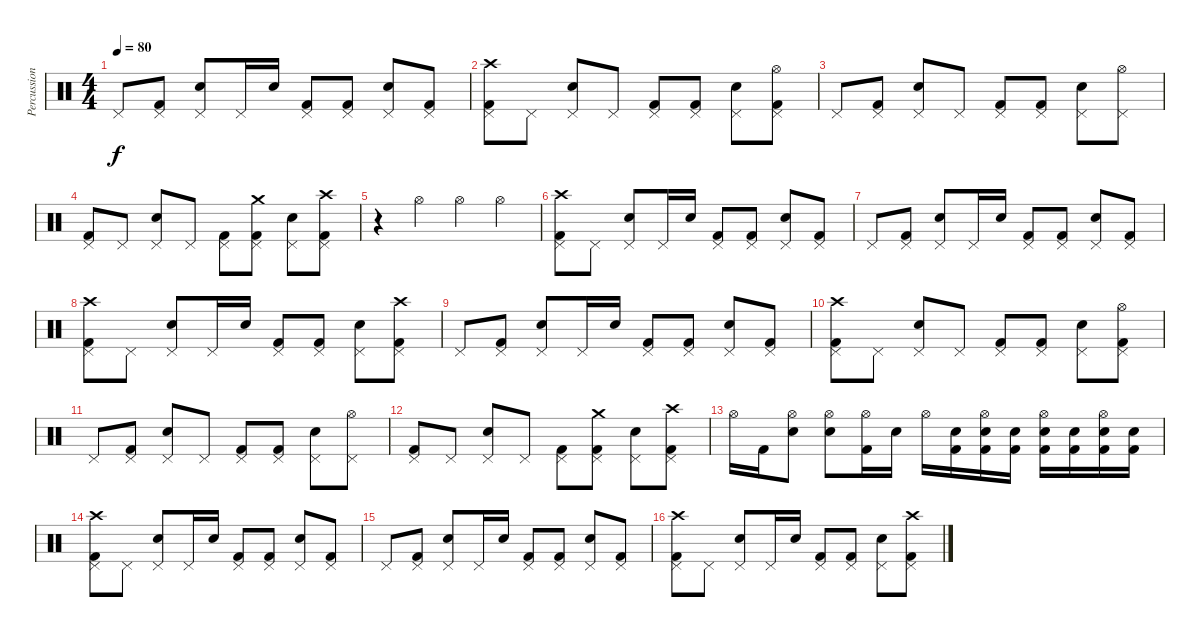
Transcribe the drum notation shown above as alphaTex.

\track ("Percussion" "Percussion") {instrument percussion}
\staff {score}
\articulation defaults
\ts (4 4)
\tempo 80
\clef neutral
\ks c "Pedal Hi-Hat (hit)".8{dy f}
("Pedal Hi-Hat (hit)" "Kick (hit) 2").8 ("Pedal Hi-Hat (hit)" "Electric Snare (hit)").8 "Pedal Hi-Hat (hit)".16 "Electric Snare (hit)".16 ("Pedal Hi-Hat (hit)" "Kick (hit) 2").8 ("Pedal Hi-Hat (hit)" "Kick (hit) 2").8 ("Pedal Hi-Hat (hit)" "Electric Snare (hit)").8 ("Pedal Hi-Hat (hit)" "Kick (hit) 2").8 |
("Pedal Hi-Hat (hit)" "Crash high (hit)" "Kick (hit) 2").8 "Pedal Hi-Hat (hit)".8 ("Pedal Hi-Hat (hit)" "Electric Snare (hit)").8 "Pedal Hi-Hat (hit)".8 ("Pedal Hi-Hat (hit)" "Kick (hit) 2").8 ("Pedal Hi-Hat (hit)" "Kick (hit) 2").8 ("Pedal Hi-Hat (hit)" "Electric Snare (hit)").8 ("Pedal Hi-Hat (hit)" "Hi-Hat (open)" "Kick (hit) 2").8 |
"Pedal Hi-Hat (hit)".8 ("Pedal Hi-Hat (hit)" "Kick (hit) 2").8 ("Pedal Hi-Hat (hit)" "Electric Snare (hit)").8 "Pedal Hi-Hat (hit)".8 ("Pedal Hi-Hat (hit)" "Kick (hit) 2").8 ("Pedal Hi-Hat (hit)" "Kick (hit) 2").8 ("Pedal Hi-Hat (hit)" "Electric Snare (hit)").8 ("Pedal Hi-Hat (hit)" "Hi-Hat (open)").8 |
("Pedal Hi-Hat (hit)" "Kick (hit) 2").8 "Pedal Hi-Hat (hit)".8 ("Pedal Hi-Hat (hit)" "Electric Snare (hit)").8 "Pedal Hi-Hat (hit)".8 ("Pedal Hi-Hat (hit)" "Kick (hit) 2").8 ("Pedal Hi-Hat (hit)" "Crash medium (hit)" "Kick (hit) 2").8 ("Pedal Hi-Hat (hit)" "Electric Snare (hit)").8 ("Pedal Hi-Hat (hit)" "Crash high (hit)" "Kick (hit) 2").8 |
r.4 "Hi-Hat (open)".4 "Hi-Hat (open)".4 "Hi-Hat (open)".4 |
("Pedal Hi-Hat (hit)" "Crash high (hit)" "Kick (hit) 2").8 "Pedal Hi-Hat (hit)".8 ("Pedal Hi-Hat (hit)" "Electric Snare (hit)").8 "Pedal Hi-Hat (hit)".16 "Electric Snare (hit)".16 ("Pedal Hi-Hat (hit)" "Kick (hit) 2").8 ("Pedal Hi-Hat (hit)" "Kick (hit) 2").8 ("Pedal Hi-Hat (hit)" "Electric Snare (hit)").8 ("Pedal Hi-Hat (hit)" "Kick (hit) 2").8 |
"Pedal Hi-Hat (hit)".8 ("Pedal Hi-Hat (hit)" "Kick (hit) 2").8 ("Pedal Hi-Hat (hit)" "Electric Snare (hit)").8 "Pedal Hi-Hat (hit)".16 "Electric Snare (hit)".16 ("Pedal Hi-Hat (hit)" "Kick (hit) 2").8 ("Pedal Hi-Hat (hit)" "Kick (hit) 2").8 ("Pedal Hi-Hat (hit)" "Electric Snare (hit)").8 ("Pedal Hi-Hat (hit)" "Kick (hit) 2").8 |
("Pedal Hi-Hat (hit)" "Crash high (hit)" "Kick (hit) 2").8 "Pedal Hi-Hat (hit)".8 ("Pedal Hi-Hat (hit)" "Electric Snare (hit)").8 "Pedal Hi-Hat (hit)".16 "Electric Snare (hit)".16 ("Pedal Hi-Hat (hit)" "Kick (hit) 2").8 ("Pedal Hi-Hat (hit)" "Kick (hit) 2").8 ("Pedal Hi-Hat (hit)" "Electric Snare (hit)").8 ("Pedal Hi-Hat (hit)" "Crash high (hit)" "Kick (hit) 2").8 |
"Pedal Hi-Hat (hit)".8 ("Pedal Hi-Hat (hit)" "Kick (hit) 2").8 ("Pedal Hi-Hat (hit)" "Electric Snare (hit)").8 "Pedal Hi-Hat (hit)".16 "Electric Snare (hit)".16 ("Pedal Hi-Hat (hit)" "Kick (hit) 2").8 ("Pedal Hi-Hat (hit)" "Kick (hit) 2").8 ("Pedal Hi-Hat (hit)" "Electric Snare (hit)").8 ("Pedal Hi-Hat (hit)" "Kick (hit) 2").8 |
("Pedal Hi-Hat (hit)" "Crash high (hit)" "Kick (hit) 2").8 "Pedal Hi-Hat (hit)".8 ("Pedal Hi-Hat (hit)" "Electric Snare (hit)").8 "Pedal Hi-Hat (hit)".8 ("Pedal Hi-Hat (hit)" "Kick (hit) 2").8 ("Pedal Hi-Hat (hit)" "Kick (hit) 2").8 ("Pedal Hi-Hat (hit)" "Electric Snare (hit)").8 ("Pedal Hi-Hat (hit)" "Hi-Hat (open)" "Kick (hit) 2").8 |
"Pedal Hi-Hat (hit)".8 ("Pedal Hi-Hat (hit)" "Kick (hit) 2").8 ("Pedal Hi-Hat (hit)" "Electric Snare (hit)").8 "Pedal Hi-Hat (hit)".8 ("Pedal Hi-Hat (hit)" "Kick (hit) 2").8 ("Pedal Hi-Hat (hit)" "Kick (hit) 2").8 ("Pedal Hi-Hat (hit)" "Electric Snare (hit)").8 ("Pedal Hi-Hat (hit)" "Hi-Hat (open)").8 |
("Pedal Hi-Hat (hit)" "Kick (hit) 2").8 "Pedal Hi-Hat (hit)".8 ("Pedal Hi-Hat (hit)" "Electric Snare (hit)").8 "Pedal Hi-Hat (hit)".8 ("Pedal Hi-Hat (hit)" "Kick (hit) 2").8 ("Pedal Hi-Hat (hit)" "Crash medium (hit)" "Kick (hit) 2").8 ("Pedal Hi-Hat (hit)" "Electric Snare (hit)").8 ("Pedal Hi-Hat (hit)" "Crash high (hit)" "Kick (hit) 2").8 |
"Hi-Hat (open)".16 "Kick (hit) 2".16 ("Hi-Hat (open)" "Electric Snare (hit)").8 ("Hi-Hat (open)" "Electric Snare (hit)").8 ("Hi-Hat (open)" "Kick (hit) 2").16 "Electric Snare (hit)".16 "Hi-Hat (open)".16 ("Electric Snare (hit)" "Kick (hit) 2").16 ("Hi-Hat (open)" "Electric Snare (hit)" "Kick (hit) 2").16 ("Electric Snare (hit)" "Kick (hit) 2").16 ("Hi-Hat (open)" "Electric Snare (hit)" "Kick (hit) 2").16 ("Electric Snare (hit)" "Kick (hit) 2").16 ("Hi-Hat (open)" "Electric Snare (hit)" "Kick (hit) 2").16 ("Electric Snare (hit)" "Kick (hit) 2").16 |
("Pedal Hi-Hat (hit)" "Crash high (hit)" "Kick (hit) 2").8 "Pedal Hi-Hat (hit)".8 ("Pedal Hi-Hat (hit)" "Electric Snare (hit)").8 "Pedal Hi-Hat (hit)".16 "Electric Snare (hit)".16 ("Pedal Hi-Hat (hit)" "Kick (hit) 2").8 ("Pedal Hi-Hat (hit)" "Kick (hit) 2").8 ("Pedal Hi-Hat (hit)" "Electric Snare (hit)").8 ("Pedal Hi-Hat (hit)" "Kick (hit) 2").8 |
"Pedal Hi-Hat (hit)".8 ("Pedal Hi-Hat (hit)" "Kick (hit) 2").8 ("Pedal Hi-Hat (hit)" "Electric Snare (hit)").8 "Pedal Hi-Hat (hit)".16 "Electric Snare (hit)".16 ("Pedal Hi-Hat (hit)" "Kick (hit) 2").8 ("Pedal Hi-Hat (hit)" "Kick (hit) 2").8 ("Pedal Hi-Hat (hit)" "Electric Snare (hit)").8 ("Pedal Hi-Hat (hit)" "Kick (hit) 2").8 |
("Pedal Hi-Hat (hit)" "Crash high (hit)" "Kick (hit) 2").8 "Pedal Hi-Hat (hit)".8 ("Pedal Hi-Hat (hit)" "Electric Snare (hit)").8 "Pedal Hi-Hat (hit)".16 "Electric Snare (hit)".16 ("Pedal Hi-Hat (hit)" "Kick (hit) 2").8 ("Pedal Hi-Hat (hit)" "Kick (hit) 2").8 ("Pedal Hi-Hat (hit)" "Electric Snare (hit)").8 ("Pedal Hi-Hat (hit)" "Crash high (hit)" "Kick (hit) 2").8
